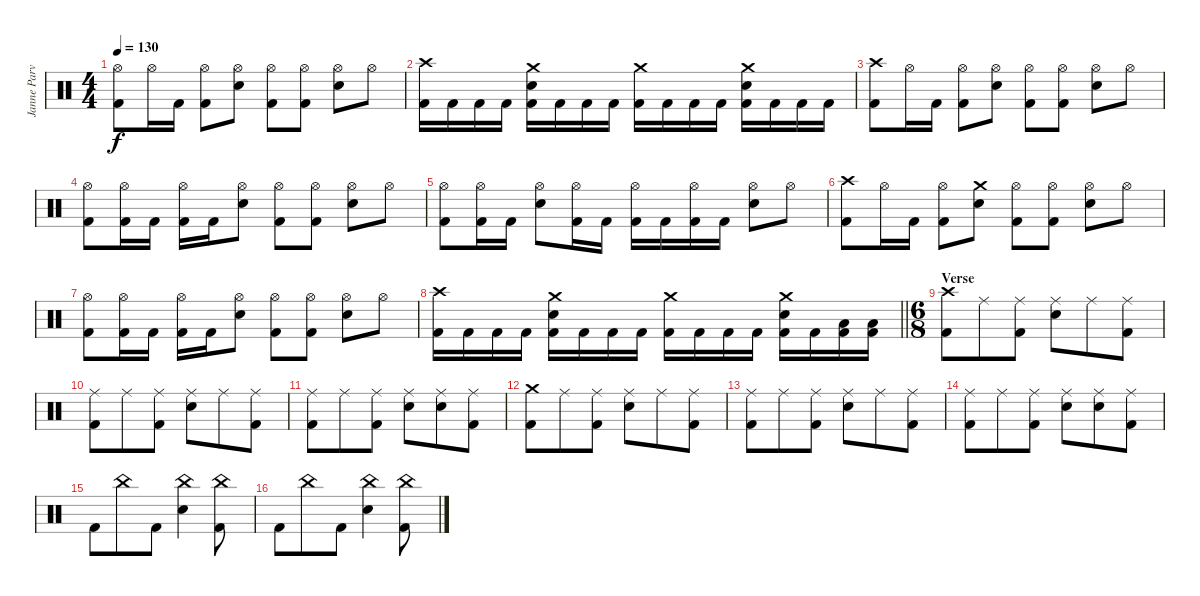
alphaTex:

\track ("Janne Parviainen" "Janne Parv") {instrument percussion}
\staff {score}
\articulation defaults
\ts (4 4)
\tempo 130
\clef neutral
\ks c
("Hi-Hat (open)" "Kick (hit) 2").8{dy f} "Hi-Hat (open)".16 "Kick (hit) 2".16 ("Hi-Hat (open)" "Kick (hit) 2").8 ("Hi-Hat (open)" "Electric Snare (hit)").8 ("Hi-Hat (open)" "Kick (hit) 2").8 ("Hi-Hat (open)" "Kick (hit) 2").8 ("Hi-Hat (open)" "Electric Snare (hit)").8 "Hi-Hat (open)".8 |
("Crash high (hit)" "Kick (hit) 2").16 "Kick (hit) 2".16 "Kick (hit) 2".16 "Kick (hit) 2".16 ("Crash medium (hit)" "Electric Snare (hit)" "Kick (hit) 2").16 "Kick (hit) 2".16 "Kick (hit) 2".16 "Kick (hit) 2".16 ("Crash medium (hit)" "Kick (hit) 2").16 "Kick (hit) 2".16 "Kick (hit) 2".16 "Kick (hit) 2".16 ("Crash medium (hit)" "Electric Snare (hit)" "Kick (hit) 2").16 "Kick (hit) 2".16 "Kick (hit) 2".16 "Kick (hit) 2".16 |
("Crash high (hit)" "Kick (hit) 2").8 "Hi-Hat (open)".16 "Kick (hit) 2".16 ("Hi-Hat (open)" "Kick (hit) 2").8 ("Hi-Hat (open)" "Electric Snare (hit)").8 ("Hi-Hat (open)" "Kick (hit) 2").8 ("Hi-Hat (open)" "Kick (hit) 2").8 ("Hi-Hat (open)" "Electric Snare (hit)").8 "Hi-Hat (open)".8 |
("Hi-Hat (open)" "Kick (hit) 2").8 ("Hi-Hat (open)" "Kick (hit) 2").16 "Kick (hit) 2".16 ("Hi-Hat (open)" "Kick (hit) 2").16 "Kick (hit) 2".16 ("Hi-Hat (open)" "Electric Snare (hit)").8 ("Hi-Hat (open)" "Kick (hit) 2").8 ("Hi-Hat (open)" "Kick (hit) 2").8 ("Hi-Hat (open)" "Electric Snare (hit)").8 "Hi-Hat (open)".8 |
("Hi-Hat (open)" "Kick (hit) 2").8 ("Hi-Hat (open)" "Kick (hit) 2").16 "Kick (hit) 2".16 ("Hi-Hat (open)" "Electric Snare (hit)").8 ("Hi-Hat (open)" "Kick (hit) 2").16 "Kick (hit) 2".16 ("Hi-Hat (open)" "Kick (hit) 2").16 "Kick (hit) 2".16 ("Hi-Hat (open)" "Kick (hit) 2").16 "Kick (hit) 2".16 ("Hi-Hat (open)" "Electric Snare (hit)").8 "Hi-Hat (open)".8 |
("Crash high (hit)" "Kick (hit) 2").8 "Hi-Hat (open)".16 "Kick (hit) 2".16 ("Hi-Hat (open)" "Kick (hit) 2").8 ("Crash medium (hit)" "Electric Snare (hit)").8 ("Hi-Hat (open)" "Kick (hit) 2").8 ("Hi-Hat (open)" "Kick (hit) 2").8 ("Hi-Hat (open)" "Electric Snare (hit)").8 "Hi-Hat (open)".8 |
("Hi-Hat (open)" "Kick (hit) 2").8 ("Hi-Hat (open)" "Kick (hit) 2").16 "Kick (hit) 2".16 ("Hi-Hat (open)" "Kick (hit) 2").16 "Kick (hit) 2".16 ("Hi-Hat (open)" "Electric Snare (hit)").8 ("Hi-Hat (open)" "Kick (hit) 2").8 ("Hi-Hat (open)" "Kick (hit) 2").8 ("Hi-Hat (open)" "Electric Snare (hit)").8 "Hi-Hat (open)".8 |
\barLineRight lightlight
("Crash high (hit)" "Kick (hit) 2").16 "Kick (hit) 2".16 "Kick (hit) 2".16 "Kick (hit) 2".16 ("Crash medium (hit)" "Electric Snare (hit)" "Kick (hit) 2").16 "Kick (hit) 2".16 "Kick (hit) 2".16 "Kick (hit) 2".16 ("Crash medium (hit)" "Kick (hit) 2").16 "Kick (hit) 2".16 "Kick (hit) 2".16 "Kick (hit) 2".16 ("Crash medium (hit)" "Electric Snare (hit)" "Kick (hit) 2").16 "Kick (hit) 2".16 ("Low Tom (hit)" "Kick (hit) 2").16 ("Low Tom (hit)" "Kick (hit) 2").16 |
\ts (6 8)
\section ("" "Verse")
("Crash high (hit)" "Kick (hit) 2").8 "Ride (middle)".8 ("Ride (middle)" "Kick (hit) 2").8 ("Ride (middle)" "Electric Snare (hit)").8 "Ride (middle)".8 ("Ride (middle)" "Kick (hit) 2").8 |
("Ride (middle)" "Kick (hit) 2").8 "Ride (middle)".8 ("Ride (middle)" "Kick (hit) 2").8 ("Ride (middle)" "Electric Snare (hit)").8 "Ride (middle)".8 ("Ride (middle)" "Kick (hit) 2").8 |
("Ride (middle)" "Kick (hit) 2").8 "Ride (middle)".8 ("Ride (middle)" "Kick (hit) 2").8 ("Ride (middle)" "Electric Snare (hit)").8 ("Ride (middle)" "Electric Snare (hit)").8 ("Ride (middle)" "Kick (hit) 2").8 |
("Crash medium (hit)" "Kick (hit) 2").8 "Ride (middle)".8 ("Ride (middle)" "Kick (hit) 2").8 ("Ride (middle)" "Electric Snare (hit)").8 "Ride (middle)".8 ("Ride (middle)" "Kick (hit) 2").8 |
("Ride (middle)" "Kick (hit) 2").8 "Ride (middle)".8 ("Ride (middle)" "Kick (hit) 2").8 ("Ride (middle)" "Electric Snare (hit)").8 "Ride (middle)".8 ("Ride (middle)" "Kick (hit) 2").8 |
("Ride (middle)" "Kick (hit) 2").8 "Ride (middle)".8 ("Ride (middle)" "Kick (hit) 2").8 ("Ride (middle)" "Electric Snare (hit)").8 ("Ride (middle)" "Electric Snare (hit)").8 ("Ride (middle)" "Kick (hit) 2").8 |
"Kick (hit) 2".8 "China (hit)".8 "Kick (hit) 2".8 ("China (hit)" "Electric Snare (hit)").4 ("China (hit)" "Kick (hit) 2").8 |
"Kick (hit) 2".8 "China (hit)".8 "Kick (hit) 2".8 ("China (hit)" "Electric Snare (hit)").4 ("China (hit)" "Kick (hit) 2").8
